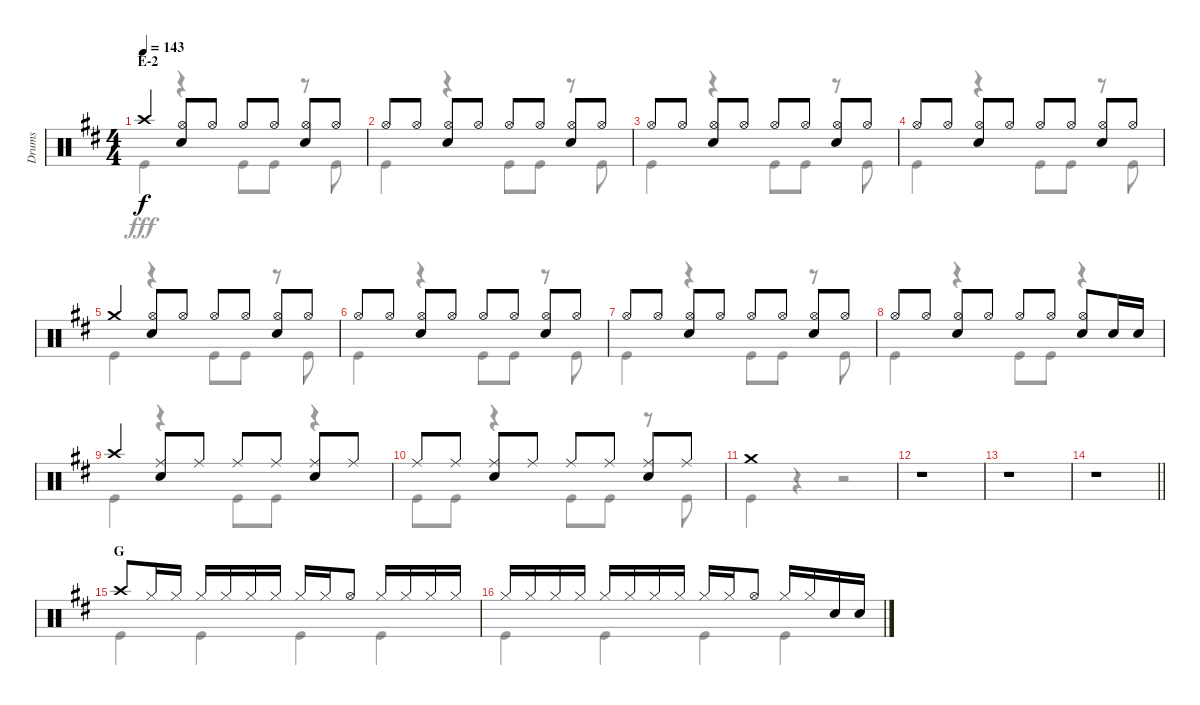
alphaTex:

\track ("Drums" "Drums") {instrument percussion}
\staff {score}
\articulation defaults
\voice
\ts (4 4)
\section ("" "E-2")
\tempo 143
\clef neutral
\ks d "Crash high (hit)".4{dy f}
("Hi-Hat (open)" "Snare (hit) 2").8 "Hi-Hat (open)".8 "Hi-Hat (open)".8 "Hi-Hat (open)".8 ("Hi-Hat (open)" "Snare (hit) 2").8 "Hi-Hat (open)".8 |
"Hi-Hat (open)".8 "Hi-Hat (open)".8 ("Hi-Hat (open)" "Snare (hit) 2").8 "Hi-Hat (open)".8 "Hi-Hat (open)".8 "Hi-Hat (open)".8 ("Hi-Hat (open)" "Snare (hit) 2").8 "Hi-Hat (open)".8 |
"Hi-Hat (open)".8 "Hi-Hat (open)".8 ("Hi-Hat (open)" "Snare (hit) 2").8 "Hi-Hat (open)".8 "Hi-Hat (open)".8 "Hi-Hat (open)".8 ("Hi-Hat (open)" "Snare (hit) 2").8 "Hi-Hat (open)".8 |
"Hi-Hat (open)".8 "Hi-Hat (open)".8 ("Hi-Hat (open)" "Snare (hit) 2").8 "Hi-Hat (open)".8 "Hi-Hat (open)".8 "Hi-Hat (open)".8 ("Hi-Hat (open)" "Snare (hit) 2").8 "Hi-Hat (open)".8 |
"Crash medium (hit)".4 ("Hi-Hat (open)" "Snare (hit) 2").8 "Hi-Hat (open)".8 "Hi-Hat (open)".8 "Hi-Hat (open)".8 ("Hi-Hat (open)" "Snare (hit) 2").8 "Hi-Hat (open)".8 |
"Hi-Hat (open)".8 "Hi-Hat (open)".8 ("Hi-Hat (open)" "Snare (hit) 2").8 "Hi-Hat (open)".8 "Hi-Hat (open)".8 "Hi-Hat (open)".8 ("Hi-Hat (open)" "Snare (hit) 2").8 "Hi-Hat (open)".8 |
"Hi-Hat (open)".8 "Hi-Hat (open)".8 ("Hi-Hat (open)" "Snare (hit) 2").8 "Hi-Hat (open)".8 "Hi-Hat (open)".8 "Hi-Hat (open)".8 ("Hi-Hat (open)" "Snare (hit) 2").8 "Hi-Hat (open)".8 |
"Hi-Hat (open)".8 "Hi-Hat (open)".8 ("Hi-Hat (open)" "Snare (hit) 2").8 "Hi-Hat (open)".8 "Hi-Hat (open)".8 "Hi-Hat (open)".8 ("Hi-Hat (open)" "Snare (hit) 2").8 "Snare (hit) 2".16 "Snare (hit) 2".16 |
"Crash high (hit)".4 ("Ride (middle)" "Snare (hit) 2").8 "Ride (middle)".8 "Ride (middle)".8 "Ride (middle)".8 ("Ride (middle)" "Snare (hit) 2").8 "Ride (middle)".8 |
"Ride (middle)".8 "Ride (middle)".8 ("Ride (middle)" "Snare (hit) 2").8 "Ride (middle)".8 "Ride (middle)".8 "Ride (middle)".8 ("Ride (middle)" "Snare (hit) 2").8 "Ride (middle)".8 |
"Crash medium (hit)".1 |
r.1 |
r.1 |
\barLineRight lightlight
r.1 |
\section ("" "G")
"Crash high (hit)".8 "Hi-Hat (closed)".16 "Hi-Hat (closed)".16 "Hi-Hat (closed)".16 "Hi-Hat (closed)".16 "Hi-Hat (closed)".16 "Hi-Hat (closed)".16 "Hi-Hat (closed)".16 "Hi-Hat (closed)".16 "Hi-Hat (open)".8 "Hi-Hat (closed)".16 "Hi-Hat (closed)".16 "Hi-Hat (closed)".16 "Hi-Hat (closed)".16 |
"Hi-Hat (closed)".16 "Hi-Hat (closed)".16 "Hi-Hat (closed)".16 "Hi-Hat (closed)".16 "Hi-Hat (closed)".16 "Hi-Hat (closed)".16 "Hi-Hat (closed)".16 "Hi-Hat (closed)".16 "Hi-Hat (closed)".16 "Hi-Hat (closed)".16 "Hi-Hat (open)".8 "Hi-Hat (closed)".16 "Hi-Hat (closed)".16 "Snare (hit) 2".16 "Snare (hit) 2".16
\voice
\clef neutral
\ottava regular
\simile none
\ks d "Kick (hit)".4{dy fff}
r.4 "Kick (hit)".8 "Kick (hit)".8 r.8 "Kick (hit)".8 |
"Kick (hit)".4 r.4 "Kick (hit)".8 "Kick (hit)".8 r.8 "Kick (hit)".8 |
"Kick (hit)".4 r.4 "Kick (hit)".8 "Kick (hit)".8 r.8 "Kick (hit)".8 |
"Kick (hit)".4 r.4 "Kick (hit)".8 "Kick (hit)".8 r.8 "Kick (hit)".8 |
"Kick (hit)".4 r.4 "Kick (hit)".8 "Kick (hit)".8 r.8 "Kick (hit)".8 |
"Kick (hit)".4 r.4 "Kick (hit)".8 "Kick (hit)".8 r.8 "Kick (hit)".8 |
"Kick (hit)".4 r.4 "Kick (hit)".8 "Kick (hit)".8 r.8 "Kick (hit)".8 |
"Kick (hit)".4 r.4 "Kick (hit)".8 "Kick (hit)".8 r.4 |
"Kick (hit)".4 r.4 "Kick (hit)".8 "Kick (hit)".8 r.4 |
"Kick (hit)".8 "Kick (hit)".8 r.4 "Kick (hit)".8 "Kick (hit)".8 r.8 "Kick (hit)".8 |
"Kick (hit)".4 r.4 r.2 |
r.1 |
r.1 |
\barLineRight lightlight
r.1 |
"Kick (hit)".4 "Kick (hit)".4 "Kick (hit)".4 "Kick (hit)".4 |
"Kick (hit)".4 "Kick (hit)".4 "Kick (hit)".4 "Kick (hit)".4
